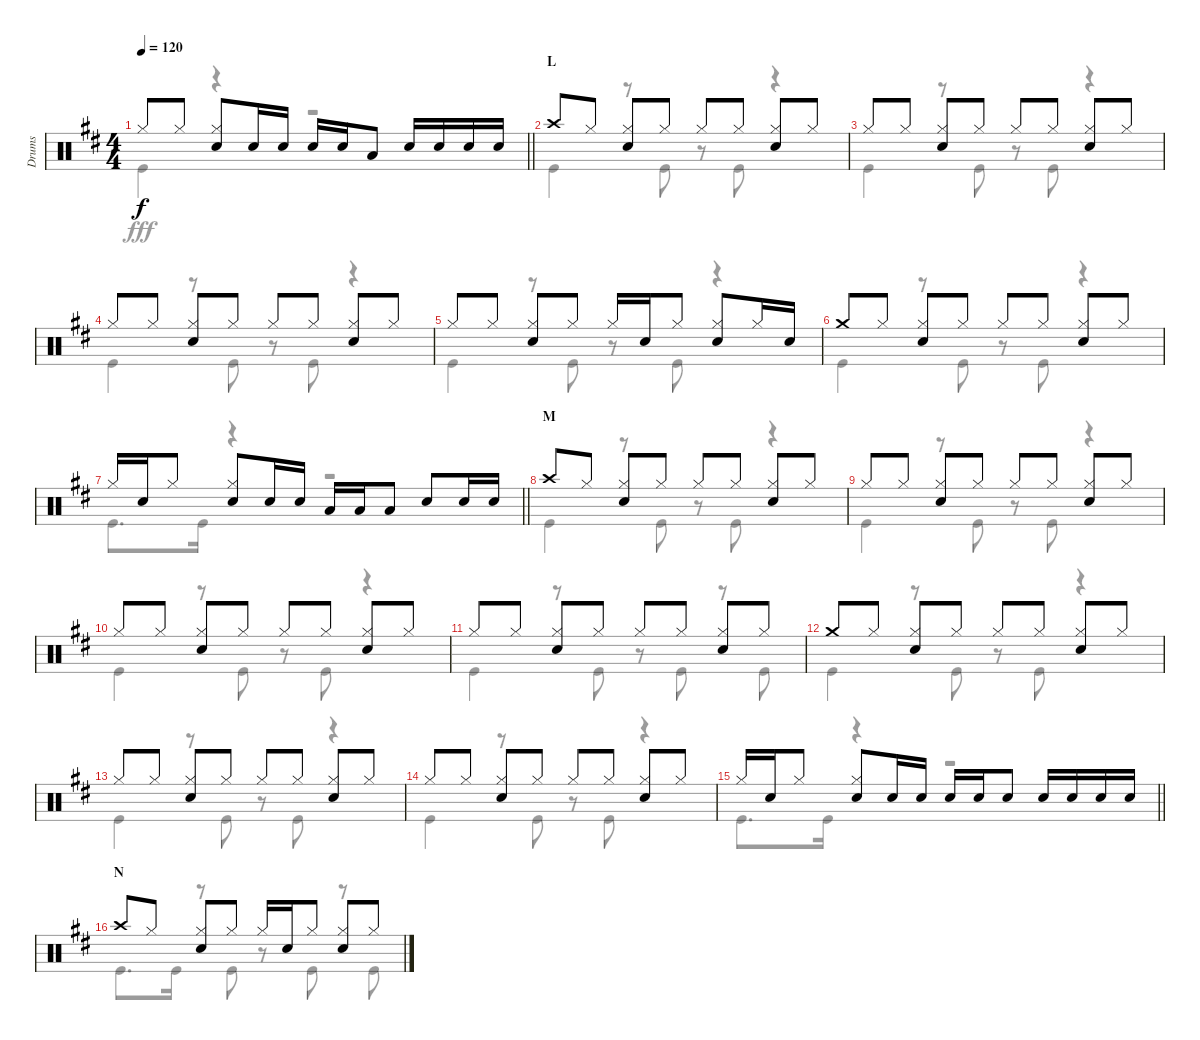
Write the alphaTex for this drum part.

\track ("Drums" "Drums") {instrument percussion}
\staff {score}
\articulation defaults
\voice
\ts (4 4)
\tempo 120
\clef neutral
\barLineRight lightlight
\ks d "Hi-Hat (closed)".8{dy f} "Hi-Hat (closed)".8
("Hi-Hat (closed)" "Snare (hit) 2").8 "Snare (hit) 2".16 "Snare (hit) 2".16 "Snare (hit) 2".16 "Snare (hit) 2".16 "Low Tom (hit)".8 "Snare (hit) 2".16 "Snare (hit) 2".16 "Snare (hit) 2".16 "Snare (hit) 2".16 |
\section ("" "L")
"Crash high (hit)".8 "Hi-Hat (closed)".8 ("Hi-Hat (closed)" "Snare (hit) 2").8 "Hi-Hat (closed)".8 "Hi-Hat (closed)".8 "Hi-Hat (closed)".8 ("Hi-Hat (closed)" "Snare (hit) 2").8 "Hi-Hat (closed)".8 |
"Hi-Hat (closed)".8 "Hi-Hat (closed)".8 ("Hi-Hat (closed)" "Snare (hit) 2").8 "Hi-Hat (closed)".8 "Hi-Hat (closed)".8 "Hi-Hat (closed)".8 ("Hi-Hat (closed)" "Snare (hit) 2").8 "Hi-Hat (closed)".8 |
"Hi-Hat (closed)".8 "Hi-Hat (closed)".8 ("Hi-Hat (closed)" "Snare (hit) 2").8 "Hi-Hat (closed)".8 "Hi-Hat (closed)".8 "Hi-Hat (closed)".8 ("Hi-Hat (closed)" "Snare (hit) 2").8 "Hi-Hat (closed)".8 |
"Hi-Hat (closed)".8 "Hi-Hat (closed)".8 ("Hi-Hat (closed)" "Snare (hit) 2").8 "Hi-Hat (closed)".8 "Hi-Hat (closed)".16 "Snare (hit) 2".16 "Hi-Hat (closed)".8 ("Hi-Hat (closed)" "Snare (hit) 2").8 "Hi-Hat (closed)".16 "Snare (hit) 2".16 |
"Crash medium (hit)".8 "Hi-Hat (closed)".8 ("Hi-Hat (closed)" "Snare (hit) 2").8 "Hi-Hat (closed)".8 "Hi-Hat (closed)".8 "Hi-Hat (closed)".8 ("Hi-Hat (closed)" "Snare (hit) 2").8 "Hi-Hat (closed)".8 |
\barLineRight lightlight "Hi-Hat (closed)".16 "Snare (hit) 2".16 "Hi-Hat (closed)".8
("Hi-Hat (closed)" "Snare (hit) 2").8 "Snare (hit) 2".16 "Snare (hit) 2".16 "Low Tom (hit)".16 "Low Tom (hit)".16 "Low Tom (hit)".8 "Snare (hit) 2".8 "Snare (hit) 2".16 "Snare (hit) 2".16 |
\section ("" "M")
"Crash high (hit)".8 "Hi-Hat (closed)".8 ("Hi-Hat (closed)" "Snare (hit) 2").8 "Hi-Hat (closed)".8 "Hi-Hat (closed)".8 "Hi-Hat (closed)".8 ("Hi-Hat (closed)" "Snare (hit) 2").8 "Hi-Hat (closed)".8 |
"Hi-Hat (closed)".8 "Hi-Hat (closed)".8 ("Hi-Hat (closed)" "Snare (hit) 2").8 "Hi-Hat (closed)".8 "Hi-Hat (closed)".8 "Hi-Hat (closed)".8 ("Hi-Hat (closed)" "Snare (hit) 2").8 "Hi-Hat (closed)".8 |
"Hi-Hat (closed)".8 "Hi-Hat (closed)".8 ("Hi-Hat (closed)" "Snare (hit) 2").8 "Hi-Hat (closed)".8 "Hi-Hat (closed)".8 "Hi-Hat (closed)".8 ("Hi-Hat (closed)" "Snare (hit) 2").8 "Hi-Hat (closed)".8 |
"Hi-Hat (closed)".8 "Hi-Hat (closed)".8 ("Hi-Hat (closed)" "Snare (hit) 2").8 "Hi-Hat (closed)".8 "Hi-Hat (closed)".8 "Hi-Hat (closed)".8 ("Hi-Hat (closed)" "Snare (hit) 2").8 "Hi-Hat (closed)".8 |
"Crash medium (hit)".8 "Hi-Hat (closed)".8 ("Hi-Hat (closed)" "Snare (hit) 2").8 "Hi-Hat (closed)".8 "Hi-Hat (closed)".8 "Hi-Hat (closed)".8 ("Hi-Hat (closed)" "Snare (hit) 2").8 "Hi-Hat (closed)".8 |
"Hi-Hat (closed)".8 "Hi-Hat (closed)".8 ("Hi-Hat (closed)" "Snare (hit) 2").8 "Hi-Hat (closed)".8 "Hi-Hat (closed)".8 "Hi-Hat (closed)".8 ("Hi-Hat (closed)" "Snare (hit) 2").8 "Hi-Hat (closed)".8 |
"Hi-Hat (closed)".8 "Hi-Hat (closed)".8 ("Hi-Hat (closed)" "Snare (hit) 2").8 "Hi-Hat (closed)".8 "Hi-Hat (closed)".8 "Hi-Hat (closed)".8 ("Hi-Hat (closed)" "Snare (hit) 2").8 "Hi-Hat (closed)".8 |
\barLineRight lightlight "Hi-Hat (closed)".16 "Snare (hit) 2".16 "Hi-Hat (closed)".8
("Hi-Hat (closed)" "Snare (hit) 2").8 "Snare (hit) 2".16 "Snare (hit) 2".16 "Snare (hit) 2".16 "Snare (hit) 2".16 "Snare (hit) 2".8 "Snare (hit) 2".16 "Snare (hit) 2".16 "Snare (hit) 2".16 "Snare (hit) 2".16 |
\section ("" "N")
"Crash high (hit)".8 "Hi-Hat (closed)".8 ("Hi-Hat (closed)" "Snare (hit) 2").8 "Hi-Hat (closed)".8 "Hi-Hat (closed)".16 "Snare (hit) 2".16 "Hi-Hat (closed)".8 ("Hi-Hat (closed)" "Snare (hit) 2").8 "Hi-Hat (closed)".8
\voice
\clef neutral
\ottava regular
\simile none
\barLineRight lightlight
\ks d "Kick (hit)".4{dy fff}
r.4 r.2 |
"Kick (hit)".4 r.8 "Kick (hit)".8 r.8 "Kick (hit)".8 r.4 |
"Kick (hit)".4 r.8 "Kick (hit)".8 r.8 "Kick (hit)".8 r.4 |
"Kick (hit)".4 r.8 "Kick (hit)".8 r.8 "Kick (hit)".8 r.4 |
"Kick (hit)".4 r.8 "Kick (hit)".8 r.8 "Kick (hit)".8 r.4 |
"Kick (hit)".4 r.8 "Kick (hit)".8 r.8 "Kick (hit)".8 r.4 |
\barLineRight lightlight "Kick (hit)".8{d} "Kick (hit)".16
r.4 r.2 |
"Kick (hit)".4 r.8 "Kick (hit)".8 r.8 "Kick (hit)".8 r.4 |
"Kick (hit)".4 r.8 "Kick (hit)".8 r.8 "Kick (hit)".8 r.4 |
"Kick (hit)".4 r.8 "Kick (hit)".8 r.8 "Kick (hit)".8 r.4 |
"Kick (hit)".4 r.8 "Kick (hit)".8 r.8 "Kick (hit)".8 r.8 "Kick (hit)".8 |
"Kick (hit)".4 r.8 "Kick (hit)".8 r.8 "Kick (hit)".8 r.4 |
"Kick (hit)".4 r.8 "Kick (hit)".8 r.8 "Kick (hit)".8 r.4 |
"Kick (hit)".4 r.8 "Kick (hit)".8 r.8 "Kick (hit)".8 r.4 |
\barLineRight lightlight "Kick (hit)".8{d} "Kick (hit)".16
r.4 r.2 |
"Kick (hit)".8{d} "Kick (hit)".16 r.8 "Kick (hit)".8 r.8 "Kick (hit)".8 r.8 "Kick (hit)".8
